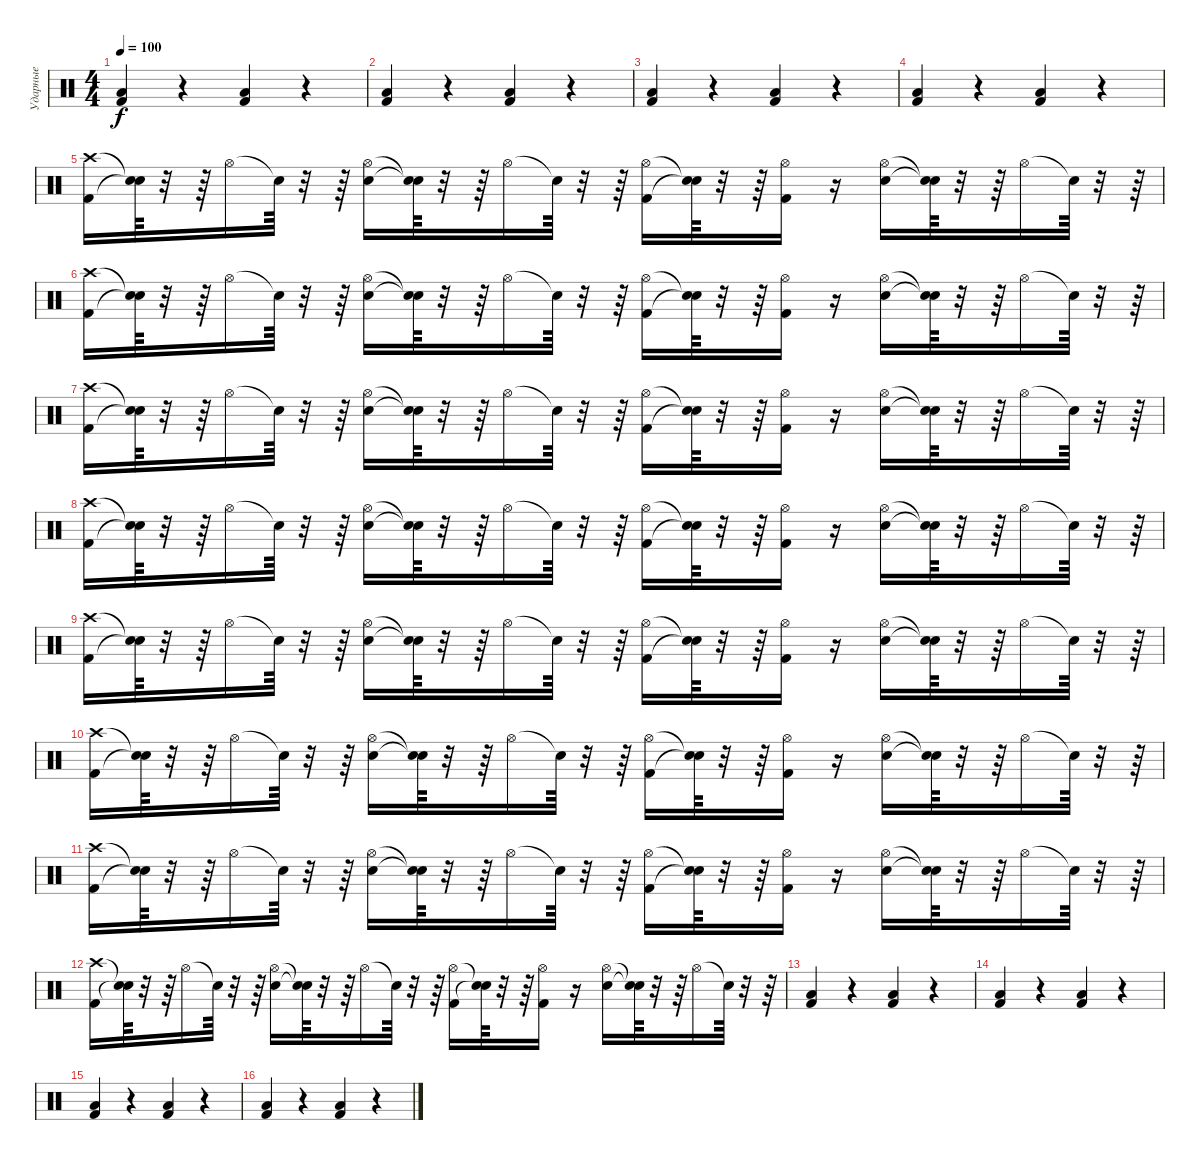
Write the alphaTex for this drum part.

\track ("Ударные" "Ударные") {instrument percussion}
\staff {score}
\articulation defaults
\ts (4 4)
\tempo 100
\clef neutral
\ks c
("Kick (hit) 2" "Low Floor Tom (hit)").4{dy f} r.4 ("Kick (hit) 2" "Low Floor Tom (hit)").4 r.4 |
("Kick (hit) 2" "Low Floor Tom (hit)").4 r.4 ("Kick (hit) 2" "Low Floor Tom (hit)").4 r.4 |
("Kick (hit) 2" "Low Floor Tom (hit)").4 r.4 ("Kick (hit) 2" "Low Floor Tom (hit)").4 r.4 |
("Kick (hit) 2" "Low Floor Tom (hit)").4 r.4 ("Kick (hit) 2" "Low Floor Tom (hit)").4 r.4 |
("Crash high (hit)" "Kick (hit) 2").16 ("Snare (hit)"{t} "Snare (hit)"{t}).64 r.32 r.64 "Hi-Hat (open)".16 "Snare (hit)"{t}.64 r.32 r.64 ("Hi-Hat (open)" "Electric Snare (hit)").16 ("Snare (hit)"{t} "Snare (hit)"{t}).64 r.32 r.64 "Hi-Hat (open)".16 "Snare (hit)"{t}.64 r.32 r.64 ("Hi-Hat (open)" "Kick (hit) 2").16 ("Snare (hit)"{t} "Snare (hit)"{t}).64 r.32 r.64 ("Kick (hit) 2" "Hi-Hat (open)").16 r.16 ("Hi-Hat (open)" "Electric Snare (hit)").16 ("Snare (hit)"{t} "Snare (hit)"{t}).64 r.32 r.64 "Hi-Hat (open)".16 "Snare (hit)"{t}.64 r.32 r.64 |
("Crash high (hit)" "Kick (hit) 2").16 ("Snare (hit)"{t} "Snare (hit)"{t}).64 r.32 r.64 "Hi-Hat (open)".16 "Snare (hit)"{t}.64 r.32 r.64 ("Hi-Hat (open)" "Electric Snare (hit)").16 ("Snare (hit)"{t} "Snare (hit)"{t}).64 r.32 r.64 "Hi-Hat (open)".16 "Snare (hit)"{t}.64 r.32 r.64 ("Hi-Hat (open)" "Kick (hit) 2").16 ("Snare (hit)"{t} "Snare (hit)"{t}).64 r.32 r.64 ("Kick (hit) 2" "Hi-Hat (open)").16 r.16 ("Hi-Hat (open)" "Electric Snare (hit)").16 ("Snare (hit)"{t} "Snare (hit)"{t}).64 r.32 r.64 "Hi-Hat (open)".16 "Snare (hit)"{t}.64 r.32 r.64 |
("Crash high (hit)" "Kick (hit) 2").16 ("Snare (hit)"{t} "Snare (hit)"{t}).64 r.32 r.64 "Hi-Hat (open)".16 "Snare (hit)"{t}.64 r.32 r.64 ("Hi-Hat (open)" "Electric Snare (hit)").16 ("Snare (hit)"{t} "Snare (hit)"{t}).64 r.32 r.64 "Hi-Hat (open)".16 "Snare (hit)"{t}.64 r.32 r.64 ("Hi-Hat (open)" "Kick (hit) 2").16 ("Snare (hit)"{t} "Snare (hit)"{t}).64 r.32 r.64 ("Kick (hit) 2" "Hi-Hat (open)").16 r.16 ("Hi-Hat (open)" "Electric Snare (hit)").16 ("Snare (hit)"{t} "Snare (hit)"{t}).64 r.32 r.64 "Hi-Hat (open)".16 "Snare (hit)"{t}.64 r.32 r.64 |
("Crash high (hit)" "Kick (hit) 2").16 ("Snare (hit)"{t} "Snare (hit)"{t}).64 r.32 r.64 "Hi-Hat (open)".16 "Snare (hit)"{t}.64 r.32 r.64 ("Hi-Hat (open)" "Electric Snare (hit)").16 ("Snare (hit)"{t} "Snare (hit)"{t}).64 r.32 r.64 "Hi-Hat (open)".16 "Snare (hit)"{t}.64 r.32 r.64 ("Hi-Hat (open)" "Kick (hit) 2").16 ("Snare (hit)"{t} "Snare (hit)"{t}).64 r.32 r.64 ("Kick (hit) 2" "Hi-Hat (open)").16 r.16 ("Hi-Hat (open)" "Electric Snare (hit)").16 ("Snare (hit)"{t} "Snare (hit)"{t}).64 r.32 r.64 "Hi-Hat (open)".16 "Snare (hit)"{t}.64 r.32 r.64 |
("Crash high (hit)" "Kick (hit) 2").16 ("Snare (hit)"{t} "Snare (hit)"{t}).64 r.32 r.64 "Hi-Hat (open)".16 "Snare (hit)"{t}.64 r.32 r.64 ("Hi-Hat (open)" "Electric Snare (hit)").16 ("Snare (hit)"{t} "Snare (hit)"{t}).64 r.32 r.64 "Hi-Hat (open)".16 "Snare (hit)"{t}.64 r.32 r.64 ("Hi-Hat (open)" "Kick (hit) 2").16 ("Snare (hit)"{t} "Snare (hit)"{t}).64 r.32 r.64 ("Kick (hit) 2" "Hi-Hat (open)").16 r.16 ("Hi-Hat (open)" "Electric Snare (hit)").16 ("Snare (hit)"{t} "Snare (hit)"{t}).64 r.32 r.64 "Hi-Hat (open)".16 "Snare (hit)"{t}.64 r.32 r.64 |
("Crash high (hit)" "Kick (hit) 2").16 ("Snare (hit)"{t} "Snare (hit)"{t}).64 r.32 r.64 "Hi-Hat (open)".16 "Snare (hit)"{t}.64 r.32 r.64 ("Hi-Hat (open)" "Electric Snare (hit)").16 ("Snare (hit)"{t} "Snare (hit)"{t}).64 r.32 r.64 "Hi-Hat (open)".16 "Snare (hit)"{t}.64 r.32 r.64 ("Hi-Hat (open)" "Kick (hit) 2").16 ("Snare (hit)"{t} "Snare (hit)"{t}).64 r.32 r.64 ("Kick (hit) 2" "Hi-Hat (open)").16 r.16 ("Hi-Hat (open)" "Electric Snare (hit)").16 ("Snare (hit)"{t} "Snare (hit)"{t}).64 r.32 r.64 "Hi-Hat (open)".16 "Snare (hit)"{t}.64 r.32 r.64 |
("Crash high (hit)" "Kick (hit) 2").16 ("Snare (hit)"{t} "Snare (hit)"{t}).64 r.32 r.64 "Hi-Hat (open)".16 "Snare (hit)"{t}.64 r.32 r.64 ("Hi-Hat (open)" "Electric Snare (hit)").16 ("Snare (hit)"{t} "Snare (hit)"{t}).64 r.32 r.64 "Hi-Hat (open)".16 "Snare (hit)"{t}.64 r.32 r.64 ("Hi-Hat (open)" "Kick (hit) 2").16 ("Snare (hit)"{t} "Snare (hit)"{t}).64 r.32 r.64 ("Kick (hit) 2" "Hi-Hat (open)").16 r.16 ("Hi-Hat (open)" "Electric Snare (hit)").16 ("Snare (hit)"{t} "Snare (hit)"{t}).64 r.32 r.64 "Hi-Hat (open)".16 "Snare (hit)"{t}.64 r.32 r.64 |
("Crash high (hit)" "Kick (hit) 2").16 ("Snare (hit)"{t} "Snare (hit)"{t}).64 r.32 r.64 "Hi-Hat (open)".16 "Snare (hit)"{t}.64 r.32 r.64 ("Hi-Hat (open)" "Electric Snare (hit)").16 ("Snare (hit)"{t} "Snare (hit)"{t}).64 r.32 r.64 "Hi-Hat (open)".16 "Snare (hit)"{t}.64 r.32 r.64 ("Hi-Hat (open)" "Kick (hit) 2").16 ("Snare (hit)"{t} "Snare (hit)"{t}).64 r.32 r.64 ("Kick (hit) 2" "Hi-Hat (open)").16 r.16 ("Hi-Hat (open)" "Electric Snare (hit)").16 ("Snare (hit)"{t} "Snare (hit)"{t}).64 r.32 r.64 "Hi-Hat (open)".16 "Snare (hit)"{t}.64 r.32 r.64 |
("Kick (hit) 2" "Low Floor Tom (hit)").4 r.4 ("Kick (hit) 2" "Low Floor Tom (hit)").4 r.4 |
("Kick (hit) 2" "Low Floor Tom (hit)").4 r.4 ("Kick (hit) 2" "Low Floor Tom (hit)").4 r.4 |
("Kick (hit) 2" "Low Floor Tom (hit)").4 r.4 ("Kick (hit) 2" "Low Floor Tom (hit)").4 r.4 |
("Kick (hit) 2" "Low Floor Tom (hit)").4 r.4 ("Kick (hit) 2" "Low Floor Tom (hit)").4 r.4
